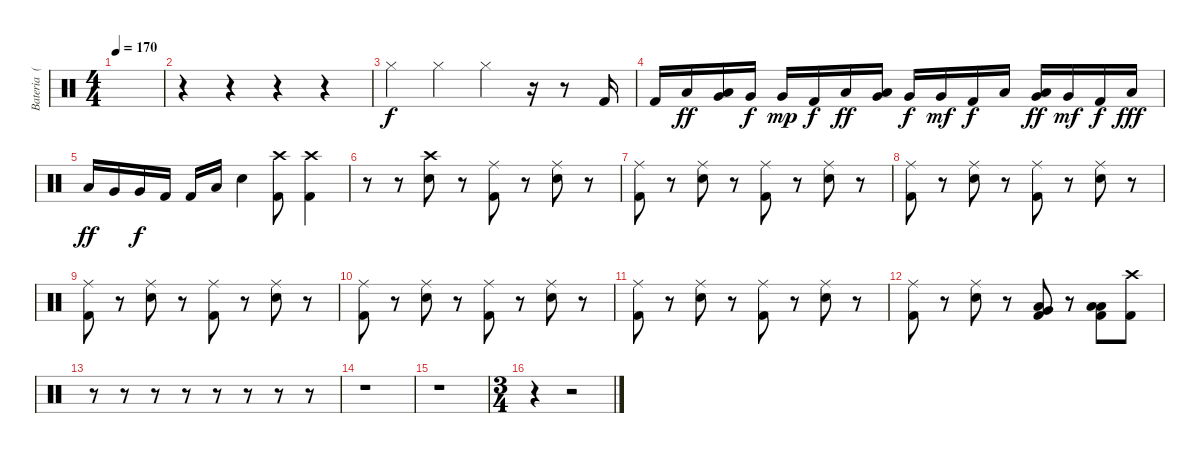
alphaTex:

\track ("Bateria  (Araujo)" "Bateria  (") {instrument percussion}
\staff {score}
\articulation defaults
\ts (4 4)
\tempo 170
\clef neutral
\ks c
|
r.4 r.4 r.4 r.4 |
"Hi-Hat (closed)".4 "Hi-Hat (closed)".4 "Hi-Hat (closed)".4 r.16 r.8 "Kick (hit) 2".16 |
"Kick (hit) 2".16 "Low Floor Tom (hit)".16{dy ff} ("Very Low Tom (hit)" "Low Floor Tom (hit)").16 "Very Low Tom (hit)".16{dy f} "Very Low Tom (hit)".16{dy mp} "Kick (hit) 2".16{dy f} "Low Floor Tom (hit)".16{dy ff} ("Very Low Tom (hit)" "Low Floor Tom (hit)").16 "Very Low Tom (hit)".16{dy f} "Very Low Tom (hit)".16{dy mf} "Kick (hit) 2".16{dy f} "Low Floor Tom (hit)".16 ("Very Low Tom (hit)" "Low Floor Tom (hit)").16{dy ff} "Very Low Tom (hit)".16{dy mf} "Kick (hit) 2".16{dy f} "Low Floor Tom (hit)".16{dy fff} |
"Low Floor Tom (hit)".16{dy ff} "Very Low Tom (hit)".16 "Very Low Tom (hit)".16{dy f} "Kick (hit) 2".16 "Kick (hit) 2".16 "Low Floor Tom (hit)".16 "Snare (hit) 2".4 ("Crash high (hit)" "Kick (hit) 2").8 ("Crash high (hit)" "Kick (hit) 2").4 |
r.8 r.8 ("Crash high (hit)" "Snare (hit) 2").8 r.8 ("Ride (middle)" "Kick (hit) 2").8 r.8 ("Ride (middle)" "Snare (hit) 2").8 r.8 |
("Ride (middle)" "Kick (hit) 2").8 r.8 ("Ride (middle)" "Snare (hit) 2").8 r.8 ("Ride (middle)" "Kick (hit) 2").8 r.8 ("Ride (middle)" "Snare (hit) 2").8 r.8 |
("Ride (middle)" "Kick (hit) 2").8 r.8 ("Ride (middle)" "Snare (hit) 2").8 r.8 ("Ride (middle)" "Kick (hit) 2").8 r.8 ("Ride (middle)" "Snare (hit) 2").8 r.8 |
("Ride (middle)" "Kick (hit) 2").8 r.8 ("Ride (middle)" "Snare (hit) 2").8 r.8 ("Ride (middle)" "Kick (hit) 2").8 r.8 ("Ride (middle)" "Snare (hit) 2").8 r.8 |
("Ride (middle)" "Kick (hit) 2").8 r.8 ("Ride (middle)" "Snare (hit) 2").8 r.8 ("Ride (middle)" "Kick (hit) 2").8 r.8 ("Ride (middle)" "Snare (hit) 2").8 r.8 |
("Ride (middle)" "Kick (hit) 2").8 r.8 ("Ride (middle)" "Snare (hit) 2").8 r.8 ("Ride (middle)" "Kick (hit) 2").8 r.8 ("Ride (middle)" "Snare (hit) 2").8 r.8 |
("Ride (middle)" "Kick (hit) 2").8 r.8 ("Ride (middle)" "Snare (hit) 2").8 r.8 ("Low Floor Tom (hit)" "Very Low Tom (hit)" "Kick (hit) 2").8 r.8 ("Low Floor Tom (hit)" "Low Floor Tom (hit)" "Kick (hit) 2").8 ("Crash high (hit)" "Kick (hit) 2").8 |
r.8 r.8 r.8 r.8 r.8 r.8 r.8 r.8 |
r.1 |
r.1 |
\ts (3 4)
r.4 r.2
